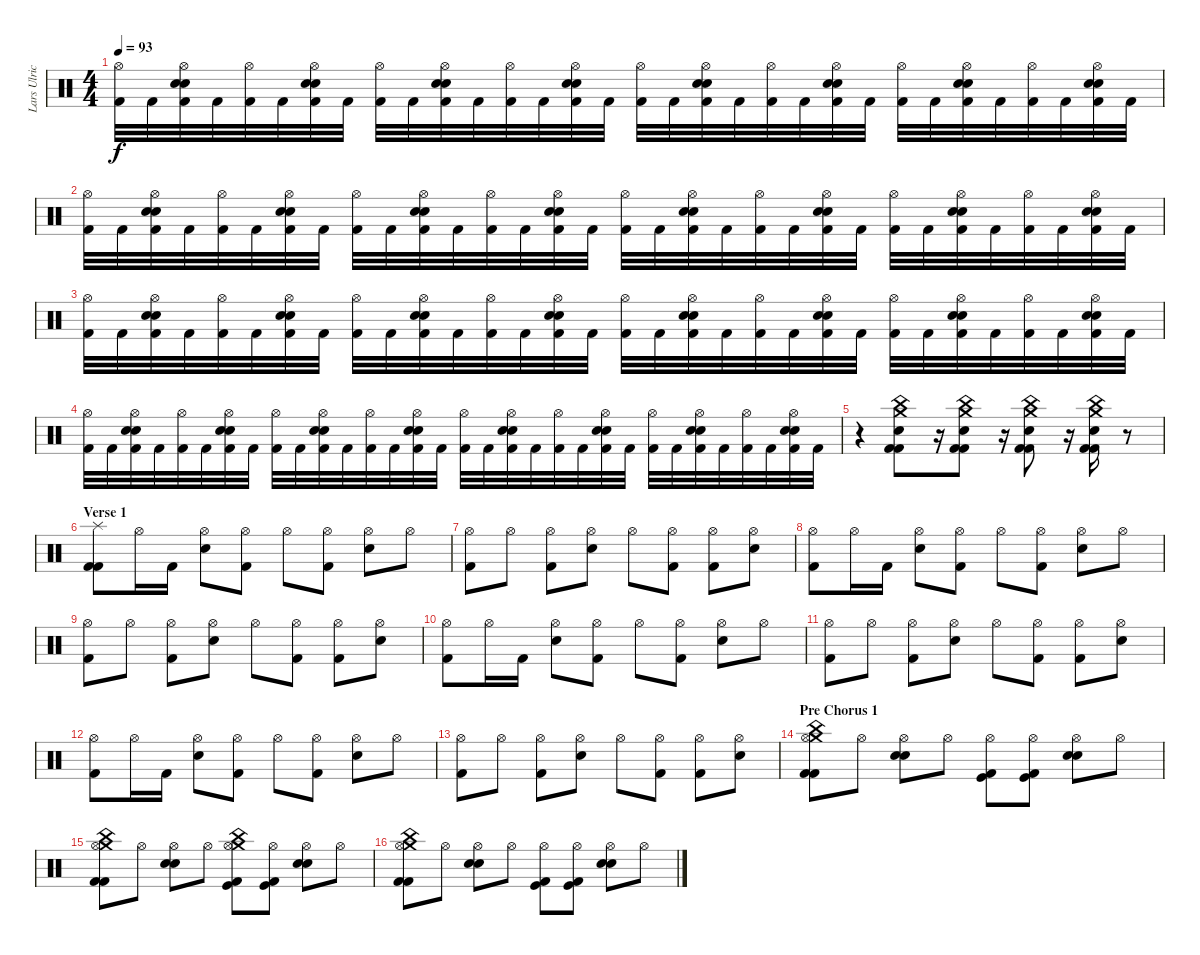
\track ("Lars Ulrich" "Lars Ulric") {instrument percussion}
\staff {score}
\articulation defaults
\ts (4 4)
\tempo 93
\clef neutral
\ks c
("Hi-Hat (open)" "Kick (hit) 2").32{dy f} "Kick (hit) 2".32 ("Hi-Hat (open)" "Electric Snare (hit)" "Snare (hit) 2" "Kick (hit) 2").32 "Kick (hit) 2".32 ("Hi-Hat (open)" "Kick (hit) 2").32 "Kick (hit) 2".32 ("Hi-Hat (open)" "Electric Snare (hit)" "Snare (hit) 2" "Kick (hit) 2").32 "Kick (hit) 2".32 ("Hi-Hat (open)" "Kick (hit) 2").32 "Kick (hit) 2".32 ("Hi-Hat (open)" "Electric Snare (hit)" "Snare (hit) 2" "Kick (hit) 2").32 "Kick (hit) 2".32 ("Hi-Hat (open)" "Kick (hit) 2").32 "Kick (hit) 2".32 ("Hi-Hat (open)" "Electric Snare (hit)" "Snare (hit) 2" "Kick (hit) 2").32 "Kick (hit) 2".32 ("Hi-Hat (open)" "Kick (hit) 2").32 "Kick (hit) 2".32 ("Hi-Hat (open)" "Electric Snare (hit)" "Snare (hit) 2" "Kick (hit) 2").32 "Kick (hit) 2".32 ("Hi-Hat (open)" "Kick (hit) 2").32 "Kick (hit) 2".32 ("Hi-Hat (open)" "Electric Snare (hit)" "Snare (hit) 2" "Kick (hit) 2").32 "Kick (hit) 2".32 ("Hi-Hat (open)" "Kick (hit) 2").32 "Kick (hit) 2".32 ("Hi-Hat (open)" "Electric Snare (hit)" "Snare (hit) 2" "Kick (hit) 2").32 "Kick (hit) 2".32 ("Hi-Hat (open)" "Kick (hit) 2").32 "Kick (hit) 2".32 ("Hi-Hat (open)" "Electric Snare (hit)" "Snare (hit) 2" "Kick (hit) 2").32 "Kick (hit) 2".32 |
("Hi-Hat (open)" "Kick (hit) 2").32 "Kick (hit) 2".32 ("Hi-Hat (open)" "Electric Snare (hit)" "Snare (hit) 2" "Kick (hit) 2").32 "Kick (hit) 2".32 ("Hi-Hat (open)" "Kick (hit) 2").32 "Kick (hit) 2".32 ("Hi-Hat (open)" "Electric Snare (hit)" "Snare (hit) 2" "Kick (hit) 2").32 "Kick (hit) 2".32 ("Hi-Hat (open)" "Kick (hit) 2").32 "Kick (hit) 2".32 ("Hi-Hat (open)" "Electric Snare (hit)" "Snare (hit) 2" "Kick (hit) 2").32 "Kick (hit) 2".32 ("Hi-Hat (open)" "Kick (hit) 2").32 "Kick (hit) 2".32 ("Hi-Hat (open)" "Electric Snare (hit)" "Snare (hit) 2" "Kick (hit) 2").32 "Kick (hit) 2".32 ("Hi-Hat (open)" "Kick (hit) 2").32 "Kick (hit) 2".32 ("Hi-Hat (open)" "Electric Snare (hit)" "Snare (hit) 2" "Kick (hit) 2").32 "Kick (hit) 2".32 ("Hi-Hat (open)" "Kick (hit) 2").32 "Kick (hit) 2".32 ("Hi-Hat (open)" "Electric Snare (hit)" "Snare (hit) 2" "Kick (hit) 2").32 "Kick (hit) 2".32 ("Hi-Hat (open)" "Kick (hit) 2").32 "Kick (hit) 2".32 ("Hi-Hat (open)" "Electric Snare (hit)" "Snare (hit) 2" "Kick (hit) 2").32 "Kick (hit) 2".32 ("Hi-Hat (open)" "Kick (hit) 2").32 "Kick (hit) 2".32 ("Hi-Hat (open)" "Electric Snare (hit)" "Snare (hit) 2" "Kick (hit) 2").32 "Kick (hit) 2".32 |
("Hi-Hat (open)" "Kick (hit) 2").32 "Kick (hit) 2".32 ("Hi-Hat (open)" "Electric Snare (hit)" "Snare (hit) 2" "Kick (hit) 2").32 "Kick (hit) 2".32 ("Hi-Hat (open)" "Kick (hit) 2").32 "Kick (hit) 2".32 ("Hi-Hat (open)" "Electric Snare (hit)" "Snare (hit) 2" "Kick (hit) 2").32 "Kick (hit) 2".32 ("Hi-Hat (open)" "Kick (hit) 2").32 "Kick (hit) 2".32 ("Hi-Hat (open)" "Electric Snare (hit)" "Snare (hit) 2" "Kick (hit) 2").32 "Kick (hit) 2".32 ("Hi-Hat (open)" "Kick (hit) 2").32 "Kick (hit) 2".32 ("Hi-Hat (open)" "Electric Snare (hit)" "Snare (hit) 2" "Kick (hit) 2").32 "Kick (hit) 2".32 ("Hi-Hat (open)" "Kick (hit) 2").32 "Kick (hit) 2".32 ("Hi-Hat (open)" "Electric Snare (hit)" "Snare (hit) 2" "Kick (hit) 2").32 "Kick (hit) 2".32 ("Hi-Hat (open)" "Kick (hit) 2").32 "Kick (hit) 2".32 ("Hi-Hat (open)" "Electric Snare (hit)" "Snare (hit) 2" "Kick (hit) 2").32 "Kick (hit) 2".32 ("Hi-Hat (open)" "Kick (hit) 2").32 "Kick (hit) 2".32 ("Hi-Hat (open)" "Electric Snare (hit)" "Snare (hit) 2" "Kick (hit) 2").32 "Kick (hit) 2".32 ("Hi-Hat (open)" "Kick (hit) 2").32 "Kick (hit) 2".32 ("Hi-Hat (open)" "Electric Snare (hit)" "Snare (hit) 2" "Kick (hit) 2").32 "Kick (hit) 2".32 |
("Hi-Hat (open)" "Kick (hit) 2").32 "Kick (hit) 2".32 ("Hi-Hat (open)" "Electric Snare (hit)" "Snare (hit) 2" "Kick (hit) 2").32 "Kick (hit) 2".32 ("Hi-Hat (open)" "Kick (hit) 2").32 "Kick (hit) 2".32 ("Hi-Hat (open)" "Electric Snare (hit)" "Snare (hit) 2" "Kick (hit) 2").32 "Kick (hit) 2".32 ("Hi-Hat (open)" "Kick (hit) 2").32 "Kick (hit) 2".32 ("Hi-Hat (open)" "Electric Snare (hit)" "Snare (hit) 2" "Kick (hit) 2").32 "Kick (hit) 2".32 ("Hi-Hat (open)" "Kick (hit) 2").32 "Kick (hit) 2".32 ("Hi-Hat (open)" "Electric Snare (hit)" "Snare (hit) 2" "Kick (hit) 2").32 "Kick (hit) 2".32 ("Hi-Hat (open)" "Kick (hit) 2").32 "Kick (hit) 2".32 ("Hi-Hat (open)" "Electric Snare (hit)" "Snare (hit) 2" "Kick (hit) 2").32 "Kick (hit) 2".32 ("Hi-Hat (open)" "Kick (hit) 2").32 "Kick (hit) 2".32 ("Hi-Hat (open)" "Electric Snare (hit)" "Snare (hit) 2" "Kick (hit) 2").32 "Kick (hit) 2".32 ("Hi-Hat (open)" "Kick (hit) 2").32 "Kick (hit) 2".32 ("Hi-Hat (open)" "Electric Snare (hit)" "Snare (hit) 2" "Kick (hit) 2").32 "Kick (hit) 2".32 ("Hi-Hat (open)" "Kick (hit) 2").32 "Kick (hit) 2".32 ("Hi-Hat (open)" "Electric Snare (hit)" "Snare (hit) 2" "Kick (hit) 2").32 "Kick (hit) 2".32 |
r.4 ("Crash medium (hit)" "China (hit)" "Kick (hit) 2" "Kick (hit) 2" "Snare (hit) 2").8 r.16 ("Crash medium (hit)" "China (hit)" "Kick (hit) 2" "Kick (hit) 2" "Snare (hit) 2").8 r.16 ("Crash medium (hit)" "China (hit)" "Kick (hit) 2" "Kick (hit) 2" "Snare (hit) 2").8 r.16 ("Crash medium (hit)" "China (hit)" "Kick (hit) 2" "Kick (hit) 2" "Snare (hit) 2").16 r.8 |
\section ("" "Verse 1")
("Splash (hit)" "Kick (hit) 2" "Kick (hit) 2").8 "Hi-Hat (open)".16 "Kick (hit) 2".16 ("Hi-Hat (open)" "Electric Snare (hit)").8 ("Hi-Hat (open)" "Kick (hit) 2").8 "Hi-Hat (open)".8 ("Hi-Hat (open)" "Kick (hit) 2").8 ("Hi-Hat (open)" "Electric Snare (hit)").8 "Hi-Hat (open)".8 |
("Hi-Hat (open)" "Kick (hit) 2").8 "Hi-Hat (open)".8 ("Hi-Hat (open)" "Kick (hit) 2").8 ("Hi-Hat (open)" "Electric Snare (hit)").8 "Hi-Hat (open)".8 ("Hi-Hat (open)" "Kick (hit) 2").8 ("Hi-Hat (open)" "Kick (hit) 2").8 ("Hi-Hat (open)" "Electric Snare (hit)").8 |
("Hi-Hat (open)" "Kick (hit) 2").8 "Hi-Hat (open)".16 "Kick (hit) 2".16 ("Hi-Hat (open)" "Electric Snare (hit)").8 ("Hi-Hat (open)" "Kick (hit) 2").8 "Hi-Hat (open)".8 ("Hi-Hat (open)" "Kick (hit) 2").8 ("Hi-Hat (open)" "Electric Snare (hit)").8 "Hi-Hat (open)".8 |
("Hi-Hat (open)" "Kick (hit) 2").8 "Hi-Hat (open)".8 ("Hi-Hat (open)" "Kick (hit) 2").8 ("Hi-Hat (open)" "Electric Snare (hit)").8 "Hi-Hat (open)".8 ("Hi-Hat (open)" "Kick (hit) 2").8 ("Hi-Hat (open)" "Kick (hit) 2").8 ("Hi-Hat (open)" "Electric Snare (hit)").8 |
("Hi-Hat (open)" "Kick (hit) 2").8 "Hi-Hat (open)".16 "Kick (hit) 2".16 ("Hi-Hat (open)" "Electric Snare (hit)").8 ("Hi-Hat (open)" "Kick (hit) 2").8 "Hi-Hat (open)".8 ("Hi-Hat (open)" "Kick (hit) 2").8 ("Hi-Hat (open)" "Electric Snare (hit)").8 "Hi-Hat (open)".8 |
("Hi-Hat (open)" "Kick (hit) 2").8 "Hi-Hat (open)".8 ("Hi-Hat (open)" "Kick (hit) 2").8 ("Hi-Hat (open)" "Electric Snare (hit)").8 "Hi-Hat (open)".8 ("Hi-Hat (open)" "Kick (hit) 2").8 ("Hi-Hat (open)" "Kick (hit) 2").8 ("Hi-Hat (open)" "Electric Snare (hit)").8 |
("Hi-Hat (open)" "Kick (hit) 2").8 "Hi-Hat (open)".16 "Kick (hit) 2".16 ("Hi-Hat (open)" "Electric Snare (hit)").8 ("Hi-Hat (open)" "Kick (hit) 2").8 "Hi-Hat (open)".8 ("Hi-Hat (open)" "Kick (hit) 2").8 ("Hi-Hat (open)" "Electric Snare (hit)").8 "Hi-Hat (open)".8 |
("Hi-Hat (open)" "Kick (hit) 2").8 "Hi-Hat (open)".8 ("Hi-Hat (open)" "Kick (hit) 2").8 ("Hi-Hat (open)" "Electric Snare (hit)").8 "Hi-Hat (open)".8 ("Hi-Hat (open)" "Kick (hit) 2").8 ("Hi-Hat (open)" "Kick (hit) 2").8 ("Hi-Hat (open)" "Electric Snare (hit)").8 |
\section ("" "Pre Chorus 1")
("Crash medium (hit)" "Hi-Hat (open)" "China (hit)" "Kick (hit) 2" "Kick (hit) 2").8 "Hi-Hat (open)".8 ("Hi-Hat (open)" "Electric Snare (hit)" "Snare (hit) 2").8 "Hi-Hat (open)".8 ("Hi-Hat (open)" "Kick (hit) 2" "Kick (hit)").8 ("Hi-Hat (open)" "Kick (hit) 2" "Kick (hit)").8 ("Hi-Hat (open)" "Electric Snare (hit)" "Snare (hit) 2").8 "Hi-Hat (open)".8 |
("Crash medium (hit)" "Hi-Hat (open)" "China (hit)" "Kick (hit) 2" "Kick (hit) 2").8 "Hi-Hat (open)".8 ("Hi-Hat (open)" "Electric Snare (hit)" "Snare (hit) 2").8 "Hi-Hat (open)".8 ("Crash medium (hit)" "Hi-Hat (open)" "China (hit)" "Kick (hit) 2" "Kick (hit)").8 ("Hi-Hat (open)" "Kick (hit) 2" "Kick (hit)").8 ("Hi-Hat (open)" "Electric Snare (hit)" "Snare (hit) 2").8 "Hi-Hat (open)".8 |
("Crash medium (hit)" "Hi-Hat (open)" "China (hit)" "Kick (hit) 2" "Kick (hit) 2").8 "Hi-Hat (open)".8 ("Hi-Hat (open)" "Electric Snare (hit)" "Snare (hit) 2").8 "Hi-Hat (open)".8 ("Hi-Hat (open)" "Kick (hit) 2" "Kick (hit)").8 ("Hi-Hat (open)" "Kick (hit) 2" "Kick (hit)").8 ("Hi-Hat (open)" "Electric Snare (hit)" "Snare (hit) 2").8 "Hi-Hat (open)".8
